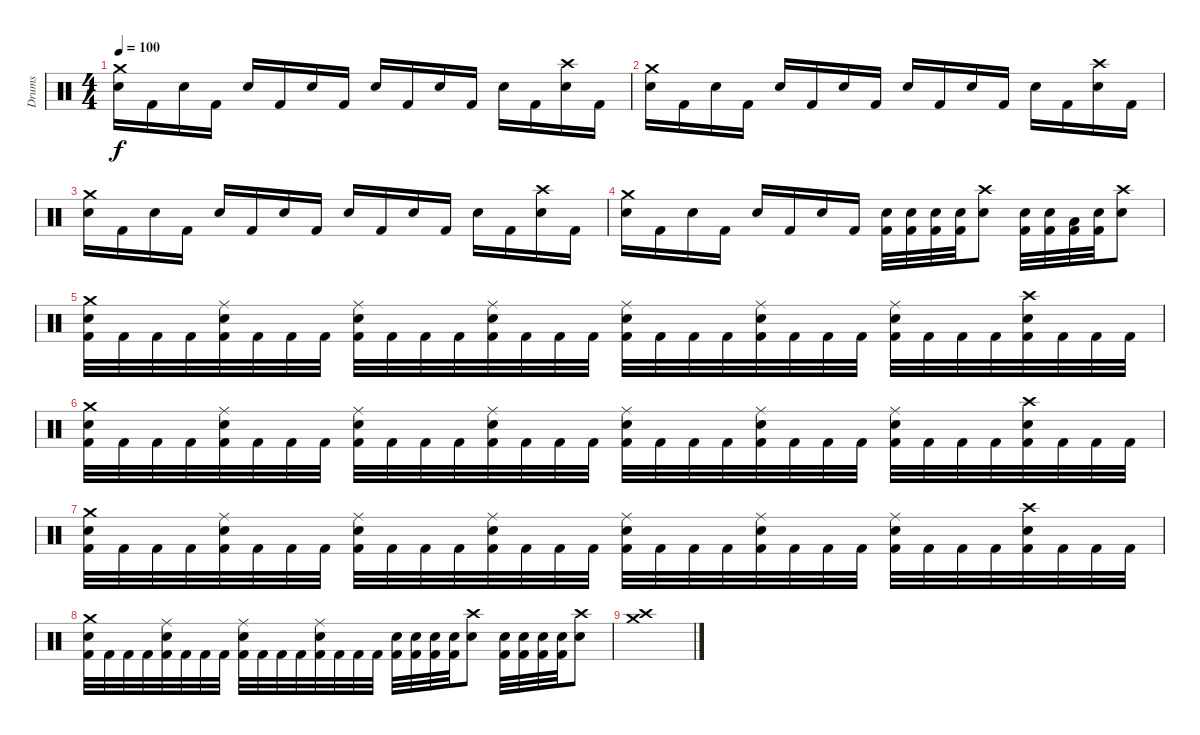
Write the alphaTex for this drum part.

\track ("Drums" "Drums") {instrument percussion}
\staff {score}
\articulation defaults
\ts (4 4)
\tempo 100
\clef neutral
\ks c
("Crash medium (hit)" "Electric Snare (hit)").16{dy f} "Kick (hit) 2".16 "Electric Snare (hit)".16 "Kick (hit) 2".16 "Electric Snare (hit)".16 "Kick (hit) 2".16 "Electric Snare (hit)".16 "Kick (hit) 2".16 "Electric Snare (hit)".16 "Kick (hit) 2".16 "Electric Snare (hit)".16 "Kick (hit) 2".16 "Electric Snare (hit)".16 "Kick (hit) 2".16 ("Crash high (hit)" "Electric Snare (hit)").16 "Kick (hit) 2".16 |
("Crash medium (hit)" "Electric Snare (hit)").16 "Kick (hit) 2".16 "Electric Snare (hit)".16 "Kick (hit) 2".16 "Electric Snare (hit)".16 "Kick (hit) 2".16 "Electric Snare (hit)".16 "Kick (hit) 2".16 "Electric Snare (hit)".16 "Kick (hit) 2".16 "Electric Snare (hit)".16 "Kick (hit) 2".16 "Electric Snare (hit)".16 "Kick (hit) 2".16 ("Crash high (hit)" "Electric Snare (hit)").16 "Kick (hit) 2".16 |
("Crash medium (hit)" "Electric Snare (hit)").16 "Kick (hit) 2".16 "Electric Snare (hit)".16 "Kick (hit) 2".16 "Electric Snare (hit)".16 "Kick (hit) 2".16 "Electric Snare (hit)".16 "Kick (hit) 2".16 "Electric Snare (hit)".16 "Kick (hit) 2".16 "Electric Snare (hit)".16 "Kick (hit) 2".16 "Electric Snare (hit)".16 "Kick (hit) 2".16 ("Crash high (hit)" "Electric Snare (hit)").16 "Kick (hit) 2".16 |
("Crash medium (hit)" "Electric Snare (hit)").16 "Kick (hit) 2".16 "Electric Snare (hit)".16 "Kick (hit) 2".16 "Electric Snare (hit)".16 "Kick (hit) 2".16 "Electric Snare (hit)".16 "Kick (hit) 2".16 ("Electric Snare (hit)" "Kick (hit) 2").32 ("Electric Snare (hit)" "Kick (hit) 2").32 ("Electric Snare (hit)" "Kick (hit) 2").32 ("Electric Snare (hit)" "Kick (hit) 2").32 ("Crash high (hit)" "Electric Snare (hit)").8 ("Electric Snare (hit)" "Kick (hit) 2").32 ("Electric Snare (hit)" "Kick (hit) 2").32 ("Low Floor Tom (hit)" "Kick (hit) 2").32 ("Electric Snare (hit)" "Kick (hit) 2").32 ("Crash high (hit)" "Electric Snare (hit)").8 |
("Crash medium (hit)" "Electric Snare (hit)" "Kick (hit) 2").32 "Kick (hit) 2".32 "Kick (hit) 2".32 "Kick (hit) 2".32 ("Ride (middle)" "Electric Snare (hit)" "Kick (hit) 2").32 "Kick (hit) 2".32 "Kick (hit) 2".32 "Kick (hit) 2".32 ("Ride (middle)" "Electric Snare (hit)" "Kick (hit) 2").32 "Kick (hit) 2".32 "Kick (hit) 2".32 "Kick (hit) 2".32 ("Ride (middle)" "Electric Snare (hit)" "Kick (hit) 2").32 "Kick (hit) 2".32 "Kick (hit) 2".32 "Kick (hit) 2".32 ("Ride (middle)" "Electric Snare (hit)" "Kick (hit) 2").32 "Kick (hit) 2".32 "Kick (hit) 2".32 "Kick (hit) 2".32 ("Ride (middle)" "Electric Snare (hit)" "Kick (hit) 2").32 "Kick (hit) 2".32 "Kick (hit) 2".32 "Kick (hit) 2".32 ("Ride (middle)" "Electric Snare (hit)" "Kick (hit) 2").32 "Kick (hit) 2".32 "Kick (hit) 2".32 "Kick (hit) 2".32 ("Crash high (hit)" "Electric Snare (hit)" "Kick (hit) 2").32 "Kick (hit) 2".32 "Kick (hit) 2".32 "Kick (hit) 2".32 |
("Crash medium (hit)" "Electric Snare (hit)" "Kick (hit) 2").32 "Kick (hit) 2".32 "Kick (hit) 2".32 "Kick (hit) 2".32 ("Ride (middle)" "Electric Snare (hit)" "Kick (hit) 2").32 "Kick (hit) 2".32 "Kick (hit) 2".32 "Kick (hit) 2".32 ("Ride (middle)" "Electric Snare (hit)" "Kick (hit) 2").32 "Kick (hit) 2".32 "Kick (hit) 2".32 "Kick (hit) 2".32 ("Ride (middle)" "Electric Snare (hit)" "Kick (hit) 2").32 "Kick (hit) 2".32 "Kick (hit) 2".32 "Kick (hit) 2".32 ("Ride (middle)" "Electric Snare (hit)" "Kick (hit) 2").32 "Kick (hit) 2".32 "Kick (hit) 2".32 "Kick (hit) 2".32 ("Ride (middle)" "Electric Snare (hit)" "Kick (hit) 2").32 "Kick (hit) 2".32 "Kick (hit) 2".32 "Kick (hit) 2".32 ("Ride (middle)" "Electric Snare (hit)" "Kick (hit) 2").32 "Kick (hit) 2".32 "Kick (hit) 2".32 "Kick (hit) 2".32 ("Crash high (hit)" "Electric Snare (hit)" "Kick (hit) 2").32 "Kick (hit) 2".32 "Kick (hit) 2".32 "Kick (hit) 2".32 |
("Crash medium (hit)" "Electric Snare (hit)" "Kick (hit) 2").32 "Kick (hit) 2".32 "Kick (hit) 2".32 "Kick (hit) 2".32 ("Ride (middle)" "Electric Snare (hit)" "Kick (hit) 2").32 "Kick (hit) 2".32 "Kick (hit) 2".32 "Kick (hit) 2".32 ("Ride (middle)" "Electric Snare (hit)" "Kick (hit) 2").32 "Kick (hit) 2".32 "Kick (hit) 2".32 "Kick (hit) 2".32 ("Ride (middle)" "Electric Snare (hit)" "Kick (hit) 2").32 "Kick (hit) 2".32 "Kick (hit) 2".32 "Kick (hit) 2".32 ("Ride (middle)" "Electric Snare (hit)" "Kick (hit) 2").32 "Kick (hit) 2".32 "Kick (hit) 2".32 "Kick (hit) 2".32 ("Ride (middle)" "Electric Snare (hit)" "Kick (hit) 2").32 "Kick (hit) 2".32 "Kick (hit) 2".32 "Kick (hit) 2".32 ("Ride (middle)" "Electric Snare (hit)" "Kick (hit) 2").32 "Kick (hit) 2".32 "Kick (hit) 2".32 "Kick (hit) 2".32 ("Crash high (hit)" "Electric Snare (hit)" "Kick (hit) 2").32 "Kick (hit) 2".32 "Kick (hit) 2".32 "Kick (hit) 2".32 |
("Crash medium (hit)" "Electric Snare (hit)" "Kick (hit) 2").32 "Kick (hit) 2".32 "Kick (hit) 2".32 "Kick (hit) 2".32 ("Ride (middle)" "Electric Snare (hit)" "Kick (hit) 2").32 "Kick (hit) 2".32 "Kick (hit) 2".32 "Kick (hit) 2".32 ("Ride (middle)" "Electric Snare (hit)" "Kick (hit) 2").32 "Kick (hit) 2".32 "Kick (hit) 2".32 "Kick (hit) 2".32 ("Ride (middle)" "Electric Snare (hit)" "Kick (hit) 2").32 "Kick (hit) 2".32 "Kick (hit) 2".32 "Kick (hit) 2".32 ("Electric Snare (hit)" "Kick (hit) 2").32 ("Electric Snare (hit)" "Kick (hit) 2").32 ("Electric Snare (hit)" "Kick (hit) 2").32 ("Electric Snare (hit)" "Kick (hit) 2").32 ("Crash high (hit)" "Electric Snare (hit)").8 ("Electric Snare (hit)" "Kick (hit) 2").32 ("Electric Snare (hit)" "Kick (hit) 2").32 ("Electric Snare (hit)" "Kick (hit) 2").32 ("Electric Snare (hit)" "Kick (hit) 2").32 ("Crash high (hit)" "Electric Snare (hit)").8 |
("Crash medium (hit)" "Crash high (hit)").1
